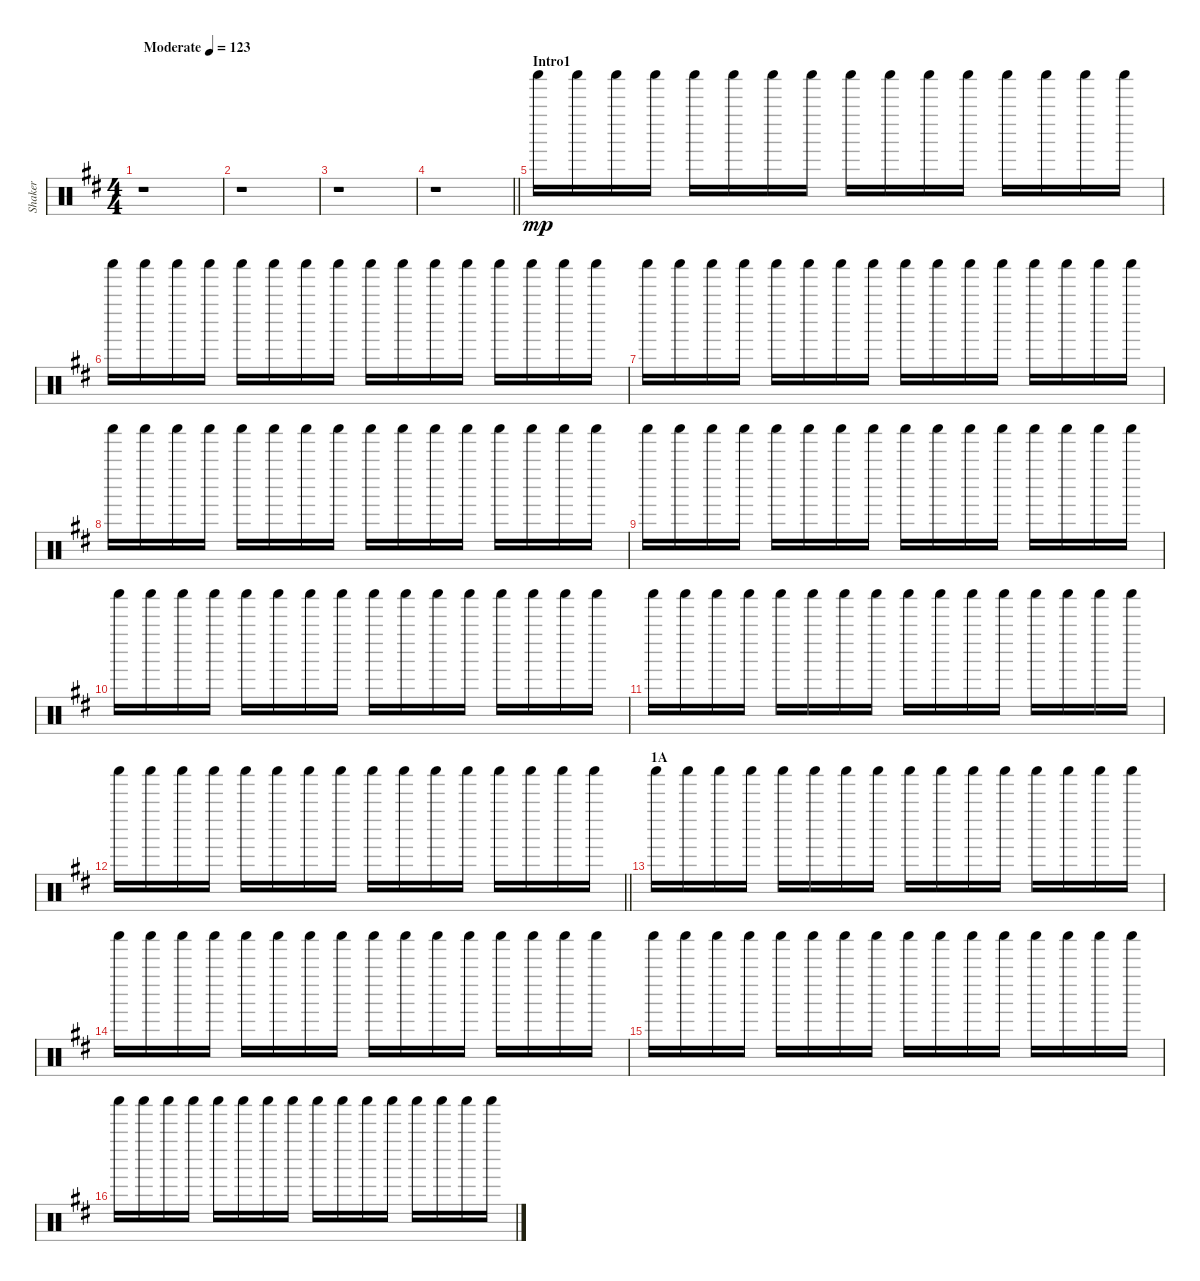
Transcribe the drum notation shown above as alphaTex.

\track ("Shaker" "Shaker") {instrument percussion}
\staff {score}
\articulation defaults
\ts (4 4)
\tempo (123 "Moderate")
\clef neutral
\ks d
r.1{dy mp} |
r.1 |
r.1 |
\barLineRight lightlight
r.1 |
\section ("" "Intro1")
"Shaker (hit)".16 "Shaker (hit)".16 "Shaker (hit)".16 "Shaker (hit)".16 "Shaker (hit)".16 "Shaker (hit)".16 "Shaker (hit)".16 "Shaker (hit)".16 "Shaker (hit)".16 "Shaker (hit)".16 "Shaker (hit)".16 "Shaker (hit)".16 "Shaker (hit)".16 "Shaker (hit)".16 "Shaker (hit)".16 "Shaker (hit)".16 |
"Shaker (hit)".16 "Shaker (hit)".16 "Shaker (hit)".16 "Shaker (hit)".16 "Shaker (hit)".16 "Shaker (hit)".16 "Shaker (hit)".16 "Shaker (hit)".16 "Shaker (hit)".16 "Shaker (hit)".16 "Shaker (hit)".16 "Shaker (hit)".16 "Shaker (hit)".16 "Shaker (hit)".16 "Shaker (hit)".16 "Shaker (hit)".16 |
"Shaker (hit)".16 "Shaker (hit)".16 "Shaker (hit)".16 "Shaker (hit)".16 "Shaker (hit)".16 "Shaker (hit)".16 "Shaker (hit)".16 "Shaker (hit)".16 "Shaker (hit)".16 "Shaker (hit)".16 "Shaker (hit)".16 "Shaker (hit)".16 "Shaker (hit)".16 "Shaker (hit)".16 "Shaker (hit)".16 "Shaker (hit)".16 |
"Shaker (hit)".16 "Shaker (hit)".16 "Shaker (hit)".16 "Shaker (hit)".16 "Shaker (hit)".16 "Shaker (hit)".16 "Shaker (hit)".16 "Shaker (hit)".16 "Shaker (hit)".16 "Shaker (hit)".16 "Shaker (hit)".16 "Shaker (hit)".16 "Shaker (hit)".16 "Shaker (hit)".16 "Shaker (hit)".16 "Shaker (hit)".16 |
"Shaker (hit)".16 "Shaker (hit)".16 "Shaker (hit)".16 "Shaker (hit)".16 "Shaker (hit)".16 "Shaker (hit)".16 "Shaker (hit)".16 "Shaker (hit)".16 "Shaker (hit)".16 "Shaker (hit)".16 "Shaker (hit)".16 "Shaker (hit)".16 "Shaker (hit)".16 "Shaker (hit)".16 "Shaker (hit)".16 "Shaker (hit)".16 |
"Shaker (hit)".16 "Shaker (hit)".16 "Shaker (hit)".16 "Shaker (hit)".16 "Shaker (hit)".16 "Shaker (hit)".16 "Shaker (hit)".16 "Shaker (hit)".16 "Shaker (hit)".16 "Shaker (hit)".16 "Shaker (hit)".16 "Shaker (hit)".16 "Shaker (hit)".16 "Shaker (hit)".16 "Shaker (hit)".16 "Shaker (hit)".16 |
"Shaker (hit)".16 "Shaker (hit)".16 "Shaker (hit)".16 "Shaker (hit)".16 "Shaker (hit)".16 "Shaker (hit)".16 "Shaker (hit)".16 "Shaker (hit)".16 "Shaker (hit)".16 "Shaker (hit)".16 "Shaker (hit)".16 "Shaker (hit)".16 "Shaker (hit)".16 "Shaker (hit)".16 "Shaker (hit)".16 "Shaker (hit)".16 |
\barLineRight lightlight "Shaker (hit)".16 "Shaker (hit)".16 "Shaker (hit)".16 "Shaker (hit)".16 "Shaker (hit)".16 "Shaker (hit)".16 "Shaker (hit)".16 "Shaker (hit)".16 "Shaker (hit)".16 "Shaker (hit)".16 "Shaker (hit)".16 "Shaker (hit)".16 "Shaker (hit)".16 "Shaker (hit)".16 "Shaker (hit)".16 "Shaker (hit)".16
|
\section ("" "1A")
"Shaker (hit)".16 "Shaker (hit)".16 "Shaker (hit)".16 "Shaker (hit)".16 "Shaker (hit)".16 "Shaker (hit)".16 "Shaker (hit)".16 "Shaker (hit)".16 "Shaker (hit)".16 "Shaker (hit)".16 "Shaker (hit)".16 "Shaker (hit)".16 "Shaker (hit)".16 "Shaker (hit)".16 "Shaker (hit)".16 "Shaker (hit)".16 |
"Shaker (hit)".16 "Shaker (hit)".16 "Shaker (hit)".16 "Shaker (hit)".16 "Shaker (hit)".16 "Shaker (hit)".16 "Shaker (hit)".16 "Shaker (hit)".16 "Shaker (hit)".16 "Shaker (hit)".16 "Shaker (hit)".16 "Shaker (hit)".16 "Shaker (hit)".16 "Shaker (hit)".16 "Shaker (hit)".16 "Shaker (hit)".16 |
"Shaker (hit)".16 "Shaker (hit)".16 "Shaker (hit)".16 "Shaker (hit)".16 "Shaker (hit)".16 "Shaker (hit)".16 "Shaker (hit)".16 "Shaker (hit)".16 "Shaker (hit)".16 "Shaker (hit)".16 "Shaker (hit)".16 "Shaker (hit)".16 "Shaker (hit)".16 "Shaker (hit)".16 "Shaker (hit)".16 "Shaker (hit)".16 |
"Shaker (hit)".16 "Shaker (hit)".16 "Shaker (hit)".16 "Shaker (hit)".16 "Shaker (hit)".16 "Shaker (hit)".16 "Shaker (hit)".16 "Shaker (hit)".16 "Shaker (hit)".16 "Shaker (hit)".16 "Shaker (hit)".16 "Shaker (hit)".16 "Shaker (hit)".16 "Shaker (hit)".16 "Shaker (hit)".16 "Shaker (hit)".16
